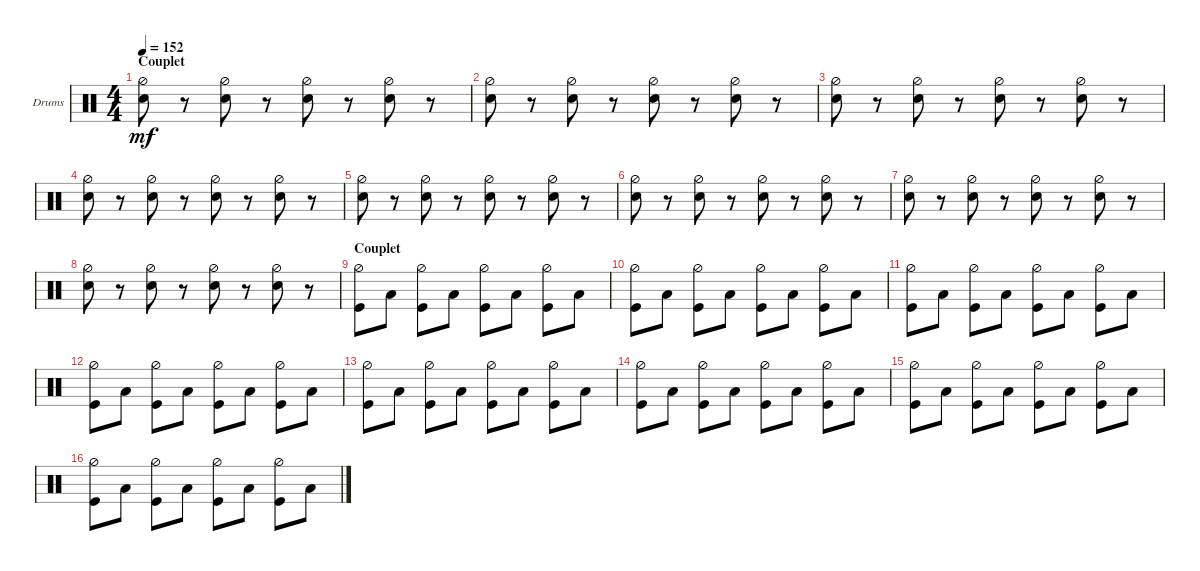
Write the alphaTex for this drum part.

\defaultSystemsLayout 4
\bracketExtendMode groupsimilarinstruments
\firstSystemTrackNameOrientation horizontal
\otherSystemsTrackNameOrientation horizontal
\track ("Dre Drum" "Drums") {instrument percussion}
\staff {score}
\articulation defaults
\ts (4 4)
\section ("" "Couplet")
\tempo 152
\clef neutral
\ks c
("Hi-Hat (half)" "Snare (hit) 2").8{dy mf} r.8 ("Hi-Hat (half)" "Snare (hit) 2").8 r.8 ("Hi-Hat (half)" "Snare (hit) 2").8 r.8 ("Hi-Hat (half)" "Snare (hit) 2").8 r.8 |
("Hi-Hat (half)" "Snare (hit) 2").8 r.8 ("Hi-Hat (half)" "Snare (hit) 2").8 r.8 ("Hi-Hat (half)" "Snare (hit) 2").8 r.8 ("Hi-Hat (half)" "Snare (hit) 2").8 r.8 |
("Hi-Hat (half)" "Snare (hit) 2").8 r.8 ("Hi-Hat (half)" "Snare (hit) 2").8 r.8 ("Hi-Hat (half)" "Snare (hit) 2").8 r.8 ("Hi-Hat (half)" "Snare (hit) 2").8 r.8 |
("Hi-Hat (half)" "Snare (hit) 2").8 r.8 ("Hi-Hat (half)" "Snare (hit) 2").8 r.8 ("Hi-Hat (half)" "Snare (hit) 2").8 r.8 ("Hi-Hat (half)" "Snare (hit) 2").8 r.8 |
("Hi-Hat (half)" "Snare (hit) 2").8 r.8 ("Hi-Hat (half)" "Snare (hit) 2").8 r.8 ("Hi-Hat (half)" "Snare (hit) 2").8 r.8 ("Hi-Hat (half)" "Snare (hit) 2").8 r.8 |
("Hi-Hat (half)" "Snare (hit) 2").8 r.8 ("Hi-Hat (half)" "Snare (hit) 2").8 r.8 ("Hi-Hat (half)" "Snare (hit) 2").8 r.8 ("Hi-Hat (half)" "Snare (hit) 2").8 r.8 |
("Hi-Hat (half)" "Snare (hit) 2").8 r.8 ("Hi-Hat (half)" "Snare (hit) 2").8 r.8 ("Hi-Hat (half)" "Snare (hit) 2").8 r.8 ("Hi-Hat (half)" "Snare (hit) 2").8 r.8 |
("Hi-Hat (half)" "Snare (hit) 2").8 r.8 ("Hi-Hat (half)" "Snare (hit) 2").8 r.8 ("Hi-Hat (half)" "Snare (hit) 2").8 r.8 ("Hi-Hat (half)" "Snare (hit) 2").8 r.8 |
\section ("" "Couplet")
("Kick (hit)" "Hi-Hat (half)").8 "Low Tom (hit)".8 ("Kick (hit)" "Hi-Hat (half)").8 "Low Tom (hit)".8 ("Kick (hit)" "Hi-Hat (half)").8 "Low Tom (hit)".8 ("Kick (hit)" "Hi-Hat (half)").8 "Low Tom (hit)".8 |
("Kick (hit)" "Hi-Hat (half)").8 "Low Tom (hit)".8 ("Kick (hit)" "Hi-Hat (half)").8 "Low Tom (hit)".8 ("Kick (hit)" "Hi-Hat (half)").8 "Low Tom (hit)".8 ("Kick (hit)" "Hi-Hat (half)").8 "Low Tom (hit)".8 |
("Kick (hit)" "Hi-Hat (half)").8 "Low Tom (hit)".8 ("Kick (hit)" "Hi-Hat (half)").8 "Low Tom (hit)".8 ("Kick (hit)" "Hi-Hat (half)").8 "Low Tom (hit)".8 ("Kick (hit)" "Hi-Hat (half)").8 "Low Tom (hit)".8 |
("Kick (hit)" "Hi-Hat (half)").8 "Low Tom (hit)".8 ("Kick (hit)" "Hi-Hat (half)").8 "Low Tom (hit)".8 ("Kick (hit)" "Hi-Hat (half)").8 "Low Tom (hit)".8 ("Kick (hit)" "Hi-Hat (half)").8 "Low Tom (hit)".8 |
("Kick (hit)" "Hi-Hat (half)").8 "Low Tom (hit)".8 ("Kick (hit)" "Hi-Hat (half)").8 "Low Tom (hit)".8 ("Kick (hit)" "Hi-Hat (half)").8 "Low Tom (hit)".8 ("Kick (hit)" "Hi-Hat (half)").8 "Low Tom (hit)".8 |
("Kick (hit)" "Hi-Hat (half)").8 "Low Tom (hit)".8 ("Kick (hit)" "Hi-Hat (half)").8 "Low Tom (hit)".8 ("Kick (hit)" "Hi-Hat (half)").8 "Low Tom (hit)".8 ("Kick (hit)" "Hi-Hat (half)").8 "Low Tom (hit)".8 |
("Kick (hit)" "Hi-Hat (half)").8 "Low Tom (hit)".8 ("Kick (hit)" "Hi-Hat (half)").8 "Low Tom (hit)".8 ("Kick (hit)" "Hi-Hat (half)").8 "Low Tom (hit)".8 ("Kick (hit)" "Hi-Hat (half)").8 "Low Tom (hit)".8 |
("Kick (hit)" "Hi-Hat (half)").8 "Low Tom (hit)".8 ("Kick (hit)" "Hi-Hat (half)").8 "Low Tom (hit)".8 ("Kick (hit)" "Hi-Hat (half)").8 "Low Tom (hit)".8 ("Kick (hit)" "Hi-Hat (half)").8 "Low Tom (hit)".8
